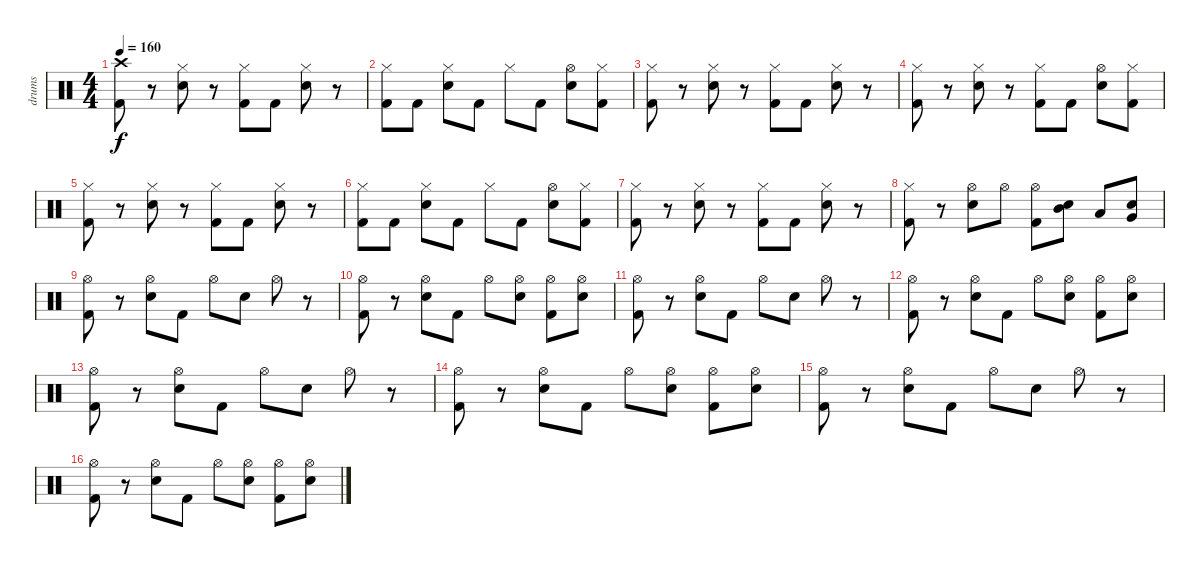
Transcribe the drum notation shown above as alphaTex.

\track ("drums" "drums") {instrument percussion}
\staff {score}
\articulation defaults
\ts (4 4)
\tempo 160
\clef neutral
\ks c
("Crash high (hit)" "Kick (hit) 2").8{dy f} r.8 ("Hi-Hat (closed)" "Electric Snare (hit)").8 r.8 ("Hi-Hat (closed)" "Kick (hit) 2").8 "Kick (hit) 2".8 ("Hi-Hat (closed)" "Electric Snare (hit)").8 r.8 |
("Hi-Hat (closed)" "Kick (hit) 2").8 "Kick (hit) 2".8 ("Hi-Hat (closed)" "Electric Snare (hit)").8 "Kick (hit) 2".8 "Hi-Hat (closed)".8 "Kick (hit) 2".8 ("Hi-Hat (open)" "Electric Snare (hit)").8 ("Hi-Hat (closed)" "Kick (hit) 2").8 |
("Hi-Hat (closed)" "Kick (hit) 2").8 r.8 ("Hi-Hat (closed)" "Electric Snare (hit)").8 r.8 ("Hi-Hat (closed)" "Kick (hit) 2").8 "Kick (hit) 2".8 ("Hi-Hat (closed)" "Electric Snare (hit)").8 r.8 |
("Hi-Hat (closed)" "Kick (hit) 2").8 r.8 ("Hi-Hat (closed)" "Electric Snare (hit)").8 r.8 ("Hi-Hat (closed)" "Kick (hit) 2").8 "Kick (hit) 2".8 ("Hi-Hat (open)" "Electric Snare (hit)").8 ("Hi-Hat (closed)" "Kick (hit) 2").8 |
("Hi-Hat (closed)" "Kick (hit) 2").8 r.8 ("Hi-Hat (closed)" "Electric Snare (hit)").8 r.8 ("Hi-Hat (closed)" "Kick (hit) 2").8 "Kick (hit) 2".8 ("Hi-Hat (closed)" "Electric Snare (hit)").8 r.8 |
("Hi-Hat (closed)" "Kick (hit) 2").8 "Kick (hit) 2".8 ("Hi-Hat (closed)" "Electric Snare (hit)").8 "Kick (hit) 2".8 "Hi-Hat (closed)".8 "Kick (hit) 2".8 ("Hi-Hat (open)" "Electric Snare (hit)").8 ("Hi-Hat (closed)" "Kick (hit) 2").8 |
("Hi-Hat (closed)" "Kick (hit) 2").8 r.8 ("Hi-Hat (closed)" "Electric Snare (hit)").8 r.8 ("Hi-Hat (closed)" "Kick (hit) 2").8 "Kick (hit) 2".8 ("Hi-Hat (closed)" "Electric Snare (hit)").8 r.8 |
("Hi-Hat (closed)" "Kick (hit) 2").8 r.8 ("Hi-Hat (open)" "Electric Snare (hit)").8 "Hi-Hat (open)".8 ("Hi-Hat (open)" "Kick (hit) 2").8 ("Mid Tom (hit)" "Electric Snare (hit)").8 "Low Tom (hit)".8 ("Very Low Tom (hit)" "Electric Snare (hit)").8 |
("Hi-Hat (open)" "Kick (hit) 2").8 r.8 ("Hi-Hat (open)" "Electric Snare (hit)").8 "Kick (hit) 2".8 "Hi-Hat (open)".8 "Electric Snare (hit)".8 "Hi-Hat (open)".8 r.8 |
("Hi-Hat (open)" "Kick (hit) 2").8 r.8 ("Hi-Hat (open)" "Electric Snare (hit)").8 "Kick (hit) 2".8 "Hi-Hat (open)".8 ("Hi-Hat (open)" "Electric Snare (hit)").8 ("Hi-Hat (open)" "Kick (hit) 2").8 ("Hi-Hat (open)" "Electric Snare (hit)").8 |
("Hi-Hat (open)" "Kick (hit) 2").8 r.8 ("Hi-Hat (open)" "Electric Snare (hit)").8 "Kick (hit) 2".8 "Hi-Hat (open)".8 "Electric Snare (hit)".8 "Hi-Hat (open)".8 r.8 |
("Hi-Hat (open)" "Kick (hit) 2").8 r.8 ("Hi-Hat (open)" "Electric Snare (hit)").8 "Kick (hit) 2".8 "Hi-Hat (open)".8 ("Hi-Hat (open)" "Electric Snare (hit)").8 ("Hi-Hat (open)" "Kick (hit) 2").8 ("Hi-Hat (open)" "Electric Snare (hit)").8 |
("Hi-Hat (open)" "Kick (hit) 2").8 r.8 ("Hi-Hat (open)" "Electric Snare (hit)").8 "Kick (hit) 2".8 "Hi-Hat (open)".8 "Electric Snare (hit)".8 "Hi-Hat (open)".8 r.8 |
("Hi-Hat (open)" "Kick (hit) 2").8 r.8 ("Hi-Hat (open)" "Electric Snare (hit)").8 "Kick (hit) 2".8 "Hi-Hat (open)".8 ("Hi-Hat (open)" "Electric Snare (hit)").8 ("Hi-Hat (open)" "Kick (hit) 2").8 ("Hi-Hat (open)" "Electric Snare (hit)").8 |
("Hi-Hat (open)" "Kick (hit) 2").8 r.8 ("Hi-Hat (open)" "Electric Snare (hit)").8 "Kick (hit) 2".8 "Hi-Hat (open)".8 "Electric Snare (hit)".8 "Hi-Hat (open)".8 r.8 |
("Hi-Hat (open)" "Kick (hit) 2").8 r.8 ("Hi-Hat (open)" "Electric Snare (hit)").8 "Kick (hit) 2".8 "Hi-Hat (open)".8 ("Hi-Hat (open)" "Electric Snare (hit)").8 ("Hi-Hat (open)" "Kick (hit) 2").8 ("Hi-Hat (open)" "Electric Snare (hit)").8
